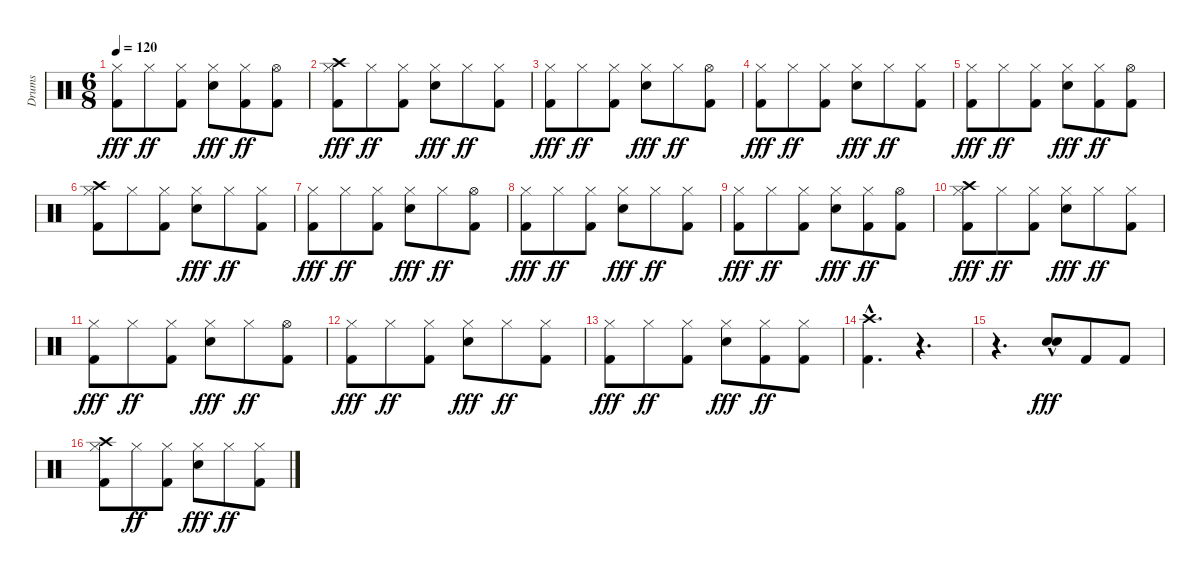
\track ("Drums" "Drums") {instrument percussion}
\staff {score}
\articulation defaults
\ts (6 8)
\tempo 120
\clef neutral
\ks c
("Hi-Hat (closed)" "Kick (hit) 2").8{dy fff} "Hi-Hat (closed)".8{dy ff} ("Hi-Hat (closed)" "Kick (hit) 2").8 ("Hi-Hat (closed)" "Snare (hit) 2").8{dy fff} ("Hi-Hat (closed)" "Kick (hit) 2").8{dy ff} ("Hi-Hat (open)" "Kick (hit) 2").8 |
("Hi-Hat (closed)" "Kick (hit) 2" "Crash high (hit)").8{dy fff} "Hi-Hat (closed)".8{dy ff} ("Hi-Hat (closed)" "Kick (hit) 2").8 ("Hi-Hat (closed)" "Snare (hit) 2").8{dy fff} "Hi-Hat (closed)".8{dy ff} ("Hi-Hat (closed)" "Kick (hit) 2").8 |
("Hi-Hat (closed)" "Kick (hit) 2").8{dy fff} "Hi-Hat (closed)".8{dy ff} ("Hi-Hat (closed)" "Kick (hit) 2").8 ("Hi-Hat (closed)" "Snare (hit) 2").8{dy fff} "Hi-Hat (closed)".8{dy ff} ("Hi-Hat (open)" "Kick (hit) 2").8 |
("Hi-Hat (closed)" "Kick (hit) 2").8{dy fff} "Hi-Hat (closed)".8{dy ff} ("Hi-Hat (closed)" "Kick (hit) 2").8 ("Hi-Hat (closed)" "Snare (hit) 2").8{dy fff} "Hi-Hat (closed)".8{dy ff} ("Hi-Hat (closed)" "Kick (hit) 2").8 |
("Hi-Hat (closed)" "Kick (hit) 2").8{dy fff} "Hi-Hat (closed)".8{dy ff} ("Hi-Hat (closed)" "Kick (hit) 2").8 ("Hi-Hat (closed)" "Snare (hit) 2").8{dy fff} ("Hi-Hat (closed)" "Kick (hit) 2").8{dy ff} ("Hi-Hat (open)" "Kick (hit) 2").8 |
("Hi-Hat (closed)" "Kick (hit) 2" "Crash high (hit)").8 "Hi-Hat (closed)".8 ("Hi-Hat (closed)" "Kick (hit) 2").8 ("Hi-Hat (closed)" "Snare (hit) 2").8{dy fff} "Hi-Hat (closed)".8{dy ff} ("Hi-Hat (closed)" "Kick (hit) 2").8 |
("Hi-Hat (closed)" "Kick (hit) 2").8{dy fff} "Hi-Hat (closed)".8{dy ff} ("Hi-Hat (closed)" "Kick (hit) 2").8 ("Hi-Hat (closed)" "Snare (hit) 2").8{dy fff} "Hi-Hat (closed)".8{dy ff} ("Hi-Hat (open)" "Kick (hit) 2").8 |
("Hi-Hat (closed)" "Kick (hit) 2").8{dy fff} "Hi-Hat (closed)".8{dy ff} ("Hi-Hat (closed)" "Kick (hit) 2").8 ("Hi-Hat (closed)" "Snare (hit) 2").8{dy fff} "Hi-Hat (closed)".8{dy ff} ("Hi-Hat (closed)" "Kick (hit) 2").8 |
("Hi-Hat (closed)" "Kick (hit) 2").8{dy fff} "Hi-Hat (closed)".8{dy ff} ("Hi-Hat (closed)" "Kick (hit) 2").8 ("Hi-Hat (closed)" "Snare (hit) 2").8{dy fff} ("Hi-Hat (closed)" "Kick (hit) 2").8{dy ff} ("Hi-Hat (open)" "Kick (hit) 2").8 |
("Hi-Hat (closed)" "Kick (hit) 2" "Crash high (hit)").8{dy fff} "Hi-Hat (closed)".8{dy ff} ("Hi-Hat (closed)" "Kick (hit) 2").8 ("Hi-Hat (closed)" "Snare (hit) 2").8{dy fff} "Hi-Hat (closed)".8{dy ff} ("Hi-Hat (closed)" "Kick (hit) 2").8 |
("Hi-Hat (closed)" "Kick (hit) 2").8{dy fff} "Hi-Hat (closed)".8{dy ff} ("Hi-Hat (closed)" "Kick (hit) 2").8 ("Hi-Hat (closed)" "Snare (hit) 2").8{dy fff} "Hi-Hat (closed)".8{dy ff} ("Hi-Hat (open)" "Kick (hit) 2").8 |
("Hi-Hat (closed)" "Kick (hit) 2").8{dy fff} "Hi-Hat (closed)".8{dy ff} ("Hi-Hat (closed)" "Kick (hit) 2").8 ("Hi-Hat (closed)" "Snare (hit) 2").8{dy fff} "Hi-Hat (closed)".8{dy ff} ("Hi-Hat (closed)" "Kick (hit) 2").8 |
("Hi-Hat (closed)" "Kick (hit) 2").8{dy fff} "Hi-Hat (closed)".8{dy ff} ("Hi-Hat (closed)" "Kick (hit) 2").8 ("Hi-Hat (closed)" "Snare (hit) 2").8{dy fff} ("Hi-Hat (closed)" "Kick (hit) 2").8{dy ff} ("Hi-Hat (closed)" "Kick (hit) 2").8 |
("Kick (hit) 2"{hac} "Crash high (hit)").4{d} r.4{d} |
r.4{d} ("Hand Clap (hit)"{hac} "Snare (hit) 2"{hac}).8{dy fff} "Kick (hit) 2".8 "Kick (hit) 2".8 |
("Hi-Hat (closed)" "Kick (hit) 2" "Crash high (hit)").8 "Hi-Hat (closed)".8{dy ff} ("Hi-Hat (closed)" "Kick (hit) 2").8 ("Hi-Hat (closed)" "Snare (hit) 2").8{dy fff} "Hi-Hat (closed)".8{dy ff} ("Hi-Hat (closed)" "Kick (hit) 2").8
